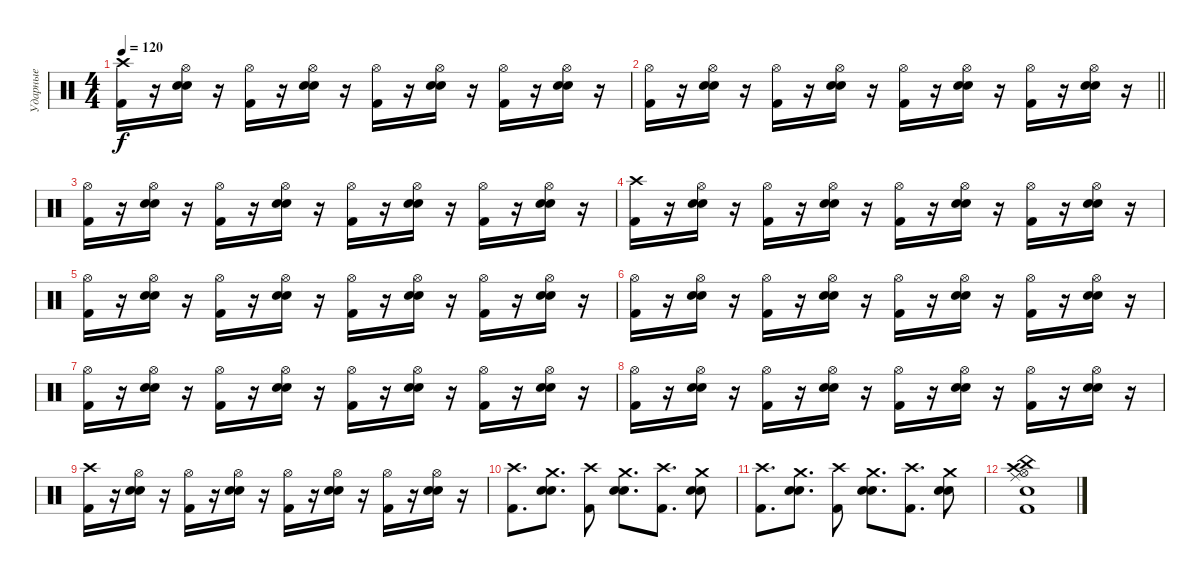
\track ("Ударные" "Ударные") {instrument percussion}
\staff {score}
\articulation defaults
\ts (4 4)
\tempo 120
\clef neutral
\ks c
("Kick (hit) 2" "Crash high (hit)").16{dy f} r.16 ("Snare (hit) 2" "Electric Snare (hit)" "Hi-Hat (open)").16 r.16 ("Kick (hit) 2" "Hi-Hat (open)").16 r.16 ("Snare (hit) 2" "Electric Snare (hit)" "Hi-Hat (open)").16 r.16 ("Kick (hit) 2" "Hi-Hat (open)").16 r.16 ("Snare (hit) 2" "Electric Snare (hit)" "Hi-Hat (open)").16 r.16 ("Kick (hit) 2" "Hi-Hat (open)").16 r.16 ("Snare (hit) 2" "Electric Snare (hit)" "Hi-Hat (open)").16 r.16 |
\barLineRight lightlight
("Kick (hit) 2" "Hi-Hat (open)").16 r.16 ("Snare (hit) 2" "Electric Snare (hit)" "Hi-Hat (open)").16 r.16 ("Kick (hit) 2" "Hi-Hat (open)").16 r.16 ("Snare (hit) 2" "Electric Snare (hit)" "Hi-Hat (open)").16 r.16 ("Kick (hit) 2" "Hi-Hat (open)").16 r.16 ("Snare (hit) 2" "Electric Snare (hit)" "Hi-Hat (open)").16 r.16 ("Kick (hit) 2" "Hi-Hat (open)").16 r.16 ("Snare (hit) 2" "Electric Snare (hit)" "Hi-Hat (open)").16 r.16 |
("Kick (hit) 2" "Hi-Hat (open)").16 r.16 ("Snare (hit) 2" "Electric Snare (hit)" "Hi-Hat (open)").16 r.16 ("Kick (hit) 2" "Hi-Hat (open)").16 r.16 ("Snare (hit) 2" "Electric Snare (hit)" "Hi-Hat (open)").16 r.16 ("Kick (hit) 2" "Hi-Hat (open)").16 r.16 ("Snare (hit) 2" "Electric Snare (hit)" "Hi-Hat (open)").16 r.16 ("Kick (hit) 2" "Hi-Hat (open)").16 r.16 ("Snare (hit) 2" "Electric Snare (hit)" "Hi-Hat (open)").16 r.16 |
("Kick (hit) 2" "Crash high (hit)").16 r.16 ("Snare (hit) 2" "Electric Snare (hit)" "Hi-Hat (open)").16 r.16 ("Kick (hit) 2" "Hi-Hat (open)").16 r.16 ("Snare (hit) 2" "Electric Snare (hit)" "Hi-Hat (open)").16 r.16 ("Kick (hit) 2" "Hi-Hat (open)").16 r.16 ("Snare (hit) 2" "Electric Snare (hit)" "Hi-Hat (open)").16 r.16 ("Kick (hit) 2" "Hi-Hat (open)").16 r.16 ("Snare (hit) 2" "Electric Snare (hit)" "Hi-Hat (open)").16 r.16 |
("Kick (hit) 2" "Hi-Hat (open)").16 r.16 ("Snare (hit) 2" "Electric Snare (hit)" "Hi-Hat (open)").16 r.16 ("Kick (hit) 2" "Hi-Hat (open)").16 r.16 ("Snare (hit) 2" "Electric Snare (hit)" "Hi-Hat (open)").16 r.16 ("Kick (hit) 2" "Hi-Hat (open)").16 r.16 ("Snare (hit) 2" "Electric Snare (hit)" "Hi-Hat (open)").16 r.16 ("Kick (hit) 2" "Hi-Hat (open)").16 r.16 ("Snare (hit) 2" "Electric Snare (hit)" "Hi-Hat (open)").16 r.16 |
("Kick (hit) 2" "Hi-Hat (open)").16 r.16 ("Snare (hit) 2" "Electric Snare (hit)" "Hi-Hat (open)").16 r.16 ("Kick (hit) 2" "Hi-Hat (open)").16 r.16 ("Snare (hit) 2" "Electric Snare (hit)" "Hi-Hat (open)").16 r.16 ("Kick (hit) 2" "Hi-Hat (open)").16 r.16 ("Snare (hit) 2" "Electric Snare (hit)" "Hi-Hat (open)").16 r.16 ("Kick (hit) 2" "Hi-Hat (open)").16 r.16 ("Snare (hit) 2" "Electric Snare (hit)" "Hi-Hat (open)").16 r.16 |
("Kick (hit) 2" "Hi-Hat (open)").16 r.16 ("Snare (hit) 2" "Electric Snare (hit)" "Hi-Hat (open)").16 r.16 ("Kick (hit) 2" "Hi-Hat (open)").16 r.16 ("Snare (hit) 2" "Electric Snare (hit)" "Hi-Hat (open)").16 r.16 ("Kick (hit) 2" "Hi-Hat (open)").16 r.16 ("Snare (hit) 2" "Electric Snare (hit)" "Hi-Hat (open)").16 r.16 ("Kick (hit) 2" "Hi-Hat (open)").16 r.16 ("Snare (hit) 2" "Electric Snare (hit)" "Hi-Hat (open)").16 r.16 |
("Kick (hit) 2" "Hi-Hat (open)").16 r.16 ("Snare (hit) 2" "Electric Snare (hit)" "Hi-Hat (open)").16 r.16 ("Kick (hit) 2" "Hi-Hat (open)").16 r.16 ("Snare (hit) 2" "Electric Snare (hit)" "Hi-Hat (open)").16 r.16 ("Kick (hit) 2" "Hi-Hat (open)").16 r.16 ("Snare (hit) 2" "Electric Snare (hit)" "Hi-Hat (open)").16 r.16 ("Kick (hit) 2" "Hi-Hat (open)").16 r.16 ("Snare (hit) 2" "Electric Snare (hit)" "Hi-Hat (open)").16 r.16 |
("Kick (hit) 2" "Crash high (hit)").16 r.16 ("Snare (hit) 2" "Electric Snare (hit)" "Hi-Hat (open)").16 r.16 ("Kick (hit) 2" "Hi-Hat (open)").16 r.16 ("Snare (hit) 2" "Electric Snare (hit)" "Hi-Hat (open)").16 r.16 ("Kick (hit) 2" "Hi-Hat (open)").16 r.16 ("Snare (hit) 2" "Electric Snare (hit)" "Hi-Hat (open)").16 r.16 ("Kick (hit) 2" "Hi-Hat (open)").16 r.16 ("Snare (hit) 2" "Electric Snare (hit)" "Hi-Hat (open)").16 r.16 |
("Crash high (hit)" "Kick (hit) 2").8{d} ("Crash medium (hit)" "Snare (hit) 2" "Electric Snare (hit)").8{d} ("Crash high (hit)" "Kick (hit) 2").8 ("Crash medium (hit)" "Electric Snare (hit)" "Snare (hit) 2").8{d} ("Crash high (hit)" "Kick (hit) 2").8{d} ("Crash medium (hit)" "Snare (hit) 2" "Electric Snare (hit)").8 |
("Crash high (hit)" "Kick (hit) 2").8{d} ("Crash medium (hit)" "Snare (hit) 2" "Electric Snare (hit)").8{d} ("Crash high (hit)" "Kick (hit) 2").8 ("Crash medium (hit)" "Electric Snare (hit)" "Snare (hit) 2").8{d} ("Crash high (hit)" "Kick (hit) 2").8{d} ("Crash medium (hit)" "Snare (hit) 2" "Electric Snare (hit)").8 |
("Crash high (hit)" "China (hit)" "Hi-Hat (open)" "Ride (middle)" "Snare (hit) 2" "Kick (hit) 2").1
